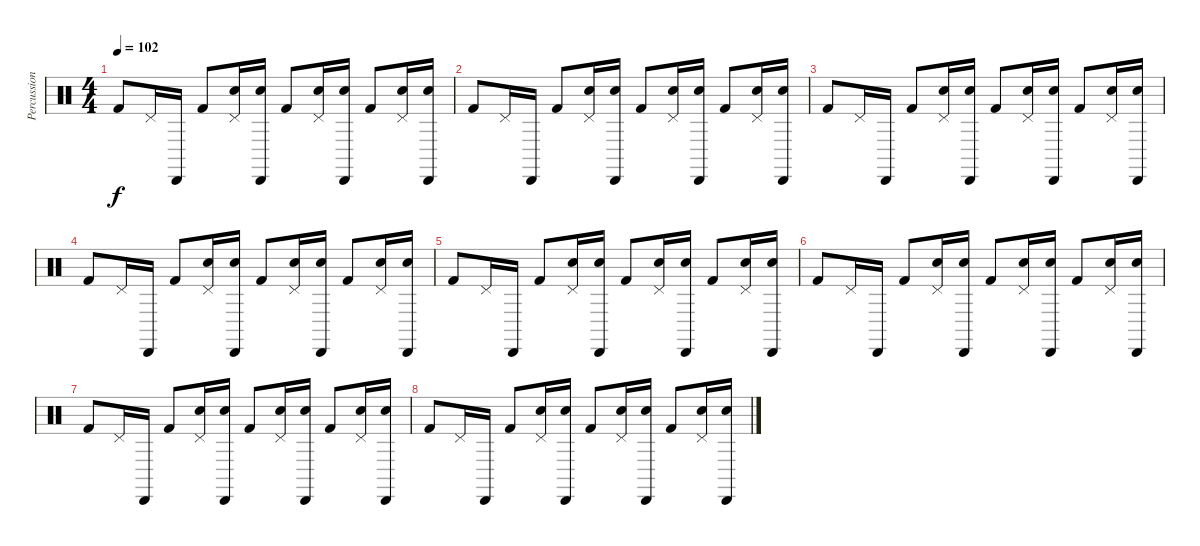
\track ("Percussions" "Percussion") {instrument percussion}
\staff {score}
\articulation defaults
\ts (4 4)
\tempo 102
\clef neutral
\ks c "Kick (hit) 2".8{dy f} "Pedal Hi-Hat (hit)".16 "Cabasa (hit)".16 "Kick (hit) 2".8
("Snare (hit) 2" "Pedal Hi-Hat (hit)").16 ("Snare (hit) 2" "Cabasa (hit)").16 "Kick (hit) 2".8 ("Snare (hit) 2" "Pedal Hi-Hat (hit)").16 ("Snare (hit) 2" "Cabasa (hit)").16 "Kick (hit) 2".8 ("Snare (hit) 2" "Pedal Hi-Hat (hit)").16 ("Snare (hit) 2" "Cabasa (hit)").16 |
"Kick (hit) 2".8 "Pedal Hi-Hat (hit)".16 "Cabasa (hit)".16 "Kick (hit) 2".8 ("Snare (hit) 2" "Pedal Hi-Hat (hit)").16 ("Snare (hit) 2" "Cabasa (hit)").16 "Kick (hit) 2".8 ("Snare (hit) 2" "Pedal Hi-Hat (hit)").16 ("Snare (hit) 2" "Cabasa (hit)").16 "Kick (hit) 2".8 ("Snare (hit) 2" "Pedal Hi-Hat (hit)").16 ("Snare (hit) 2" "Cabasa (hit)").16 |
"Kick (hit) 2".8 "Pedal Hi-Hat (hit)".16 "Cabasa (hit)".16 "Kick (hit) 2".8 ("Snare (hit) 2" "Pedal Hi-Hat (hit)").16 ("Snare (hit) 2" "Cabasa (hit)").16 "Kick (hit) 2".8 ("Snare (hit) 2" "Pedal Hi-Hat (hit)").16 ("Snare (hit) 2" "Cabasa (hit)").16 "Kick (hit) 2".8 ("Snare (hit) 2" "Pedal Hi-Hat (hit)").16 ("Snare (hit) 2" "Cabasa (hit)").16 |
"Kick (hit) 2".8 "Pedal Hi-Hat (hit)".16 "Cabasa (hit)".16 "Kick (hit) 2".8 ("Snare (hit) 2" "Pedal Hi-Hat (hit)").16 ("Snare (hit) 2" "Cabasa (hit)").16 "Kick (hit) 2".8 ("Snare (hit) 2" "Pedal Hi-Hat (hit)").16 ("Snare (hit) 2" "Cabasa (hit)").16 "Kick (hit) 2".8 ("Snare (hit) 2" "Pedal Hi-Hat (hit)").16 ("Snare (hit) 2" "Cabasa (hit)").16 |
"Kick (hit) 2".8 "Pedal Hi-Hat (hit)".16 "Cabasa (hit)".16 "Kick (hit) 2".8 ("Snare (hit) 2" "Pedal Hi-Hat (hit)").16 ("Snare (hit) 2" "Cabasa (hit)").16 "Kick (hit) 2".8 ("Snare (hit) 2" "Pedal Hi-Hat (hit)").16 ("Snare (hit) 2" "Cabasa (hit)").16 "Kick (hit) 2".8 ("Snare (hit) 2" "Pedal Hi-Hat (hit)").16 ("Snare (hit) 2" "Cabasa (hit)").16 |
"Kick (hit) 2".8 "Pedal Hi-Hat (hit)".16 "Cabasa (hit)".16 "Kick (hit) 2".8 ("Snare (hit) 2" "Pedal Hi-Hat (hit)").16 ("Snare (hit) 2" "Cabasa (hit)").16 "Kick (hit) 2".8 ("Snare (hit) 2" "Pedal Hi-Hat (hit)").16 ("Snare (hit) 2" "Cabasa (hit)").16 "Kick (hit) 2".8 ("Snare (hit) 2" "Pedal Hi-Hat (hit)").16 ("Snare (hit) 2" "Cabasa (hit)").16 |
"Kick (hit) 2".8 "Pedal Hi-Hat (hit)".16 "Cabasa (hit)".16 "Kick (hit) 2".8 ("Snare (hit) 2" "Pedal Hi-Hat (hit)").16 ("Snare (hit) 2" "Cabasa (hit)").16 "Kick (hit) 2".8 ("Snare (hit) 2" "Pedal Hi-Hat (hit)").16 ("Snare (hit) 2" "Cabasa (hit)").16 "Kick (hit) 2".8 ("Snare (hit) 2" "Pedal Hi-Hat (hit)").16 ("Snare (hit) 2" "Cabasa (hit)").16 |
"Kick (hit) 2".8 "Pedal Hi-Hat (hit)".16 "Cabasa (hit)".16 "Kick (hit) 2".8 ("Snare (hit) 2" "Pedal Hi-Hat (hit)").16 ("Snare (hit) 2" "Cabasa (hit)").16 "Kick (hit) 2".8 ("Snare (hit) 2" "Pedal Hi-Hat (hit)").16 ("Snare (hit) 2" "Cabasa (hit)").16 "Kick (hit) 2".8 ("Snare (hit) 2" "Pedal Hi-Hat (hit)").16 ("Snare (hit) 2" "Cabasa (hit)").16
